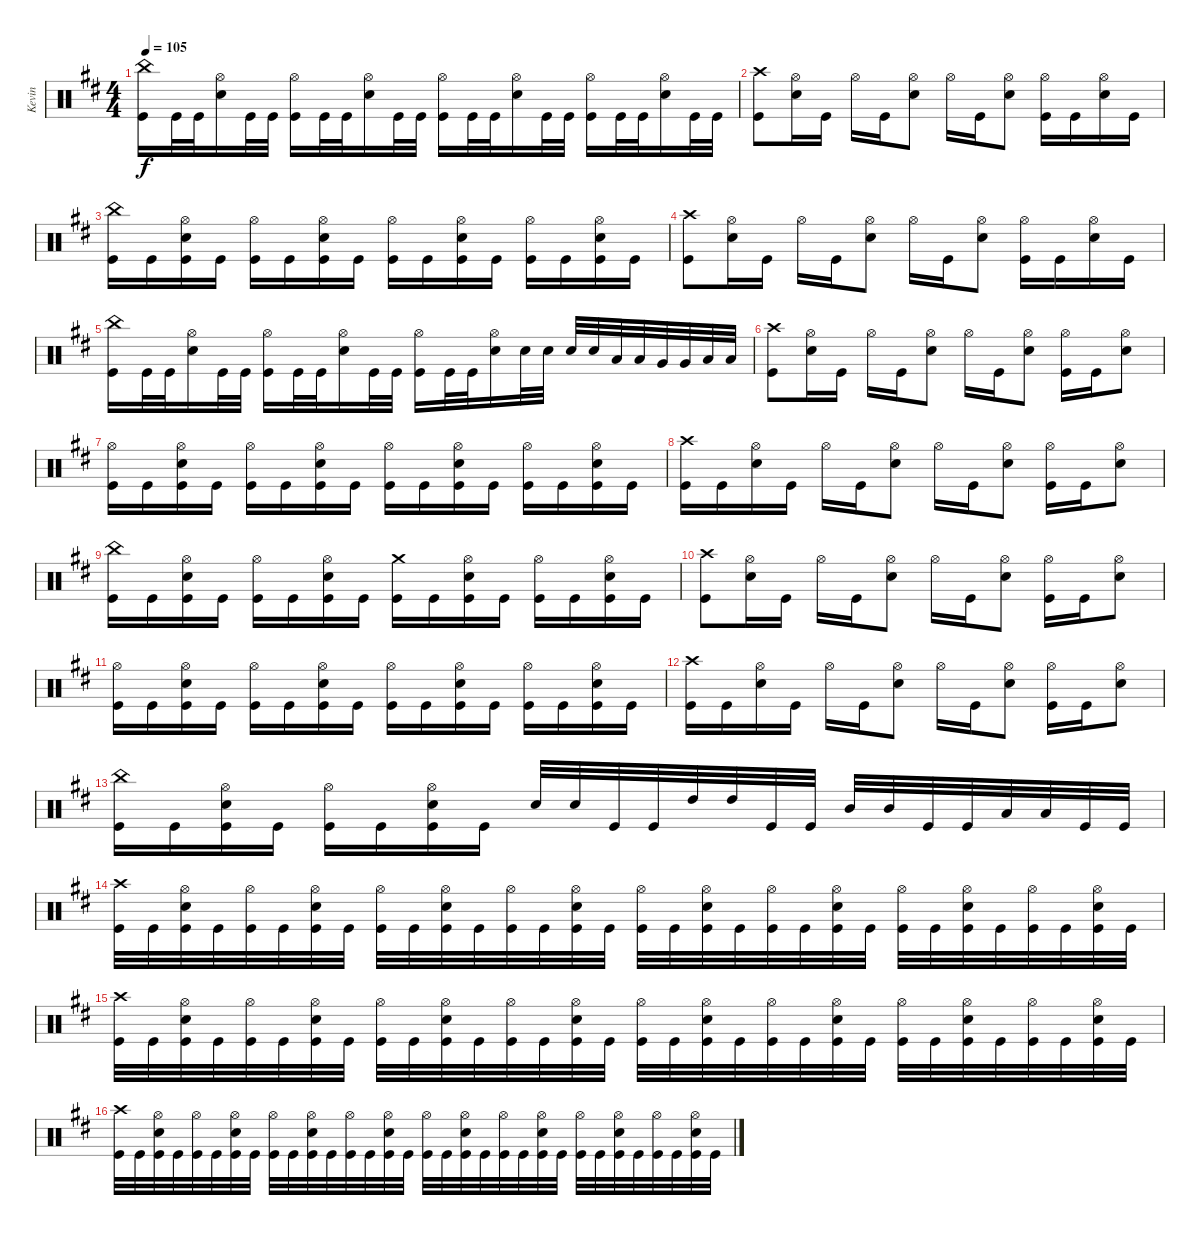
\track ("Kevin" "Kevin") {instrument percussion}
\staff {score}
\articulation defaults
\ts (4 4)
\tempo 105
\clef neutral
\ks d
("China (hit)" "Kick (hit)").16{dy f} "Kick (hit)".32 "Kick (hit)".32 ("Hi-Hat (open)" "Snare (hit) 2").16 "Kick (hit)".32 "Kick (hit)".32 ("Hi-Hat (open)" "Kick (hit)").16 "Kick (hit)".32 "Kick (hit)".32 ("Hi-Hat (open)" "Snare (hit) 2").16 "Kick (hit)".32 "Kick (hit)".32 ("Hi-Hat (open)" "Kick (hit)").16 "Kick (hit)".32 "Kick (hit)".32 ("Hi-Hat (open)" "Snare (hit) 2").16 "Kick (hit)".32 "Kick (hit)".32 ("Hi-Hat (open)" "Kick (hit)").16 "Kick (hit)".32 "Kick (hit)".32 ("Hi-Hat (open)" "Snare (hit) 2").16 "Kick (hit)".32 "Kick (hit)".32 |
("Crash high (hit)" "Kick (hit)").8 ("Hi-Hat (open)" "Snare (hit) 2").16 "Kick (hit)".16 "Hi-Hat (open)".16 "Kick (hit)".16 ("Hi-Hat (open)" "Snare (hit) 2").8 "Hi-Hat (open)".16 "Kick (hit)".16 ("Hi-Hat (open)" "Snare (hit) 2").8 ("Hi-Hat (open)" "Kick (hit)").16 "Kick (hit)".16 ("Hi-Hat (open)" "Snare (hit) 2").16 "Kick (hit)".16 |
("China (hit)" "Kick (hit)").16 "Kick (hit)".16 ("Hi-Hat (open)" "Snare (hit) 2" "Kick (hit)").16 "Kick (hit)".16 ("Hi-Hat (open)" "Kick (hit)").16 "Kick (hit)".16 ("Hi-Hat (open)" "Snare (hit) 2" "Kick (hit)").16 "Kick (hit)".16 ("Hi-Hat (open)" "Kick (hit)").16 "Kick (hit)".16 ("Hi-Hat (open)" "Snare (hit) 2" "Kick (hit)").16 "Kick (hit)".16 ("Hi-Hat (open)" "Kick (hit)").16 "Kick (hit)".16 ("Hi-Hat (open)" "Snare (hit) 2" "Kick (hit)").16 "Kick (hit)".16 |
("Crash high (hit)" "Kick (hit)").8 ("Hi-Hat (open)" "Snare (hit) 2").16 "Kick (hit)".16 "Hi-Hat (open)".16 "Kick (hit)".16 ("Hi-Hat (open)" "Snare (hit) 2").8 "Hi-Hat (open)".16 "Kick (hit)".16 ("Hi-Hat (open)" "Snare (hit) 2").8 ("Hi-Hat (open)" "Kick (hit)").16 "Kick (hit)".16 ("Hi-Hat (open)" "Snare (hit) 2").16 "Kick (hit)".16 |
("China (hit)" "Kick (hit)").16 "Kick (hit)".32 "Kick (hit)".32 ("Hi-Hat (open)" "Snare (hit) 2").16 "Kick (hit)".32 "Kick (hit)".32 ("Hi-Hat (open)" "Kick (hit)").16 "Kick (hit)".32 "Kick (hit)".32 ("Hi-Hat (open)" "Snare (hit) 2").16 "Kick (hit)".32 "Kick (hit)".32 ("Hi-Hat (open)" "Kick (hit)").16 "Kick (hit)".32 "Kick (hit)".32 ("Hi-Hat (open)" "Snare (hit) 2").16 "Snare (hit) 2".32 "Snare (hit) 2".32 "Snare (hit) 2".32 "Snare (hit) 2".32 "Low Tom (hit)".32 "Low Tom (hit)".32 "Very Low Tom (hit)".32 "Very Low Tom (hit)".32 "Low Floor Tom (hit)".32 "Low Floor Tom (hit)".32 |
("Crash high (hit)" "Kick (hit)").8 ("Hi-Hat (open)" "Snare (hit) 2").16 "Kick (hit)".16 "Hi-Hat (open)".16 "Kick (hit)".16 ("Hi-Hat (open)" "Snare (hit) 2").8 "Hi-Hat (open)".16 "Kick (hit)".16 ("Hi-Hat (open)" "Snare (hit) 2").8 ("Hi-Hat (open)" "Kick (hit)").16 "Kick (hit)".16 ("Hi-Hat (open)" "Snare (hit) 2").8 |
("Hi-Hat (open)" "Kick (hit)").16 "Kick (hit)".16 ("Hi-Hat (open)" "Snare (hit) 2" "Kick (hit)").16 "Kick (hit)".16 ("Hi-Hat (open)" "Kick (hit)").16 "Kick (hit)".16 ("Hi-Hat (open)" "Snare (hit) 2" "Kick (hit)").16 "Kick (hit)".16 ("Hi-Hat (open)" "Kick (hit)").16 "Kick (hit)".16 ("Hi-Hat (open)" "Snare (hit) 2" "Kick (hit)").16 "Kick (hit)".16 ("Hi-Hat (open)" "Kick (hit)").16 "Kick (hit)".16 ("Hi-Hat (open)" "Snare (hit) 2" "Kick (hit)").16 "Kick (hit)".16 |
("Crash high (hit)" "Kick (hit)").16 "Kick (hit)".16 ("Hi-Hat (open)" "Snare (hit) 2").16 "Kick (hit)".16 "Hi-Hat (open)".16 "Kick (hit)".16 ("Hi-Hat (open)" "Snare (hit) 2").8 "Hi-Hat (open)".16 "Kick (hit)".16 ("Hi-Hat (open)" "Snare (hit) 2").8 ("Hi-Hat (open)" "Kick (hit)").16 "Kick (hit)".16 ("Hi-Hat (open)" "Snare (hit) 2").8 |
("China (hit)" "Kick (hit)").16 "Kick (hit)".16 ("Hi-Hat (open)" "Snare (hit) 2" "Kick (hit)").16 "Kick (hit)".16 ("Hi-Hat (open)" "Kick (hit)").16 "Kick (hit)".16 ("Hi-Hat (open)" "Snare (hit) 2" "Kick (hit)").16 "Kick (hit)".16 ("Crash medium (hit)" "Kick (hit)").16 "Kick (hit)".16 ("Hi-Hat (open)" "Snare (hit) 2" "Kick (hit)").16 "Kick (hit)".16 ("Hi-Hat (open)" "Kick (hit)").16 "Kick (hit)".16 ("Hi-Hat (open)" "Snare (hit) 2" "Kick (hit)").16 "Kick (hit)".16 |
("Crash high (hit)" "Kick (hit)").8 ("Hi-Hat (open)" "Snare (hit) 2").16 "Kick (hit)".16 "Hi-Hat (open)".16 "Kick (hit)".16 ("Hi-Hat (open)" "Snare (hit) 2").8 "Hi-Hat (open)".16 "Kick (hit)".16 ("Hi-Hat (open)" "Snare (hit) 2").8 ("Hi-Hat (open)" "Kick (hit)").16 "Kick (hit)".16 ("Hi-Hat (open)" "Snare (hit) 2").8 |
("Hi-Hat (open)" "Kick (hit)").16 "Kick (hit)".16 ("Hi-Hat (open)" "Snare (hit) 2" "Kick (hit)").16 "Kick (hit)".16 ("Hi-Hat (open)" "Kick (hit)").16 "Kick (hit)".16 ("Hi-Hat (open)" "Snare (hit) 2" "Kick (hit)").16 "Kick (hit)".16 ("Hi-Hat (open)" "Kick (hit)").16 "Kick (hit)".16 ("Hi-Hat (open)" "Snare (hit) 2" "Kick (hit)").16 "Kick (hit)".16 ("Hi-Hat (open)" "Kick (hit)").16 "Kick (hit)".16 ("Hi-Hat (open)" "Snare (hit) 2" "Kick (hit)").16 "Kick (hit)".16 |
("Crash high (hit)" "Kick (hit)").16 "Kick (hit)".16 ("Hi-Hat (open)" "Snare (hit) 2").16 "Kick (hit)".16 "Hi-Hat (open)".16 "Kick (hit)".16 ("Hi-Hat (open)" "Snare (hit) 2").8 "Hi-Hat (open)".16 "Kick (hit)".16 ("Hi-Hat (open)" "Snare (hit) 2").8 ("Hi-Hat (open)" "Kick (hit)").16 "Kick (hit)".16 ("Hi-Hat (open)" "Snare (hit) 2").8 |
("China (hit)" "Kick (hit)").16 "Kick (hit)".16 ("Hi-Hat (open)" "Snare (hit) 2" "Kick (hit)").16 "Kick (hit)".16 ("Hi-Hat (open)" "Kick (hit)").16 "Kick (hit)".16 ("Hi-Hat (open)" "Snare (hit) 2" "Kick (hit)").16 "Kick (hit)".16 "Snare (hit) 2".32 "Snare (hit) 2".32 "Kick (hit)".32 "Kick (hit)".32 "High Tom (hit)".32 "High Tom (hit)".32 "Kick (hit)".32 "Kick (hit)".32 "Mid Tom (hit)".32 "Mid Tom (hit)".32 "Kick (hit)".32 "Kick (hit)".32 "Low Tom (hit)".32 "Low Tom (hit)".32 "Kick (hit)".32 "Kick (hit)".32 |
("Crash high (hit)" "Kick (hit)").32 "Kick (hit)".32 ("Hi-Hat (open)" "Snare (hit) 2" "Kick (hit)").32 "Kick (hit)".32 ("Hi-Hat (open)" "Kick (hit)").32 "Kick (hit)".32 ("Hi-Hat (open)" "Snare (hit) 2" "Kick (hit)").32 "Kick (hit)".32 ("Hi-Hat (open)" "Kick (hit)").32 "Kick (hit)".32 ("Hi-Hat (open)" "Snare (hit) 2" "Kick (hit)").32 "Kick (hit)".32 ("Hi-Hat (open)" "Kick (hit)").32 "Kick (hit)".32 ("Hi-Hat (open)" "Snare (hit) 2" "Kick (hit)").32 "Kick (hit)".32 ("Hi-Hat (open)" "Kick (hit)").32 "Kick (hit)".32 ("Hi-Hat (open)" "Snare (hit) 2" "Kick (hit)").32 "Kick (hit)".32 ("Hi-Hat (open)" "Kick (hit)").32 "Kick (hit)".32 ("Hi-Hat (open)" "Snare (hit) 2" "Kick (hit)").32 "Kick (hit)".32 ("Hi-Hat (open)" "Kick (hit)").32 "Kick (hit)".32 ("Hi-Hat (open)" "Snare (hit) 2" "Kick (hit)").32 "Kick (hit)".32 ("Hi-Hat (open)" "Kick (hit)").32 "Kick (hit)".32 ("Hi-Hat (open)" "Snare (hit) 2" "Kick (hit)").32 "Kick (hit)".32 |
("Crash high (hit)" "Kick (hit)").32 "Kick (hit)".32 ("Hi-Hat (open)" "Snare (hit) 2" "Kick (hit)").32 "Kick (hit)".32 ("Hi-Hat (open)" "Kick (hit)").32 "Kick (hit)".32 ("Hi-Hat (open)" "Snare (hit) 2" "Kick (hit)").32 "Kick (hit)".32 ("Hi-Hat (open)" "Kick (hit)").32 "Kick (hit)".32 ("Hi-Hat (open)" "Snare (hit) 2" "Kick (hit)").32 "Kick (hit)".32 ("Hi-Hat (open)" "Kick (hit)").32 "Kick (hit)".32 ("Hi-Hat (open)" "Snare (hit) 2" "Kick (hit)").32 "Kick (hit)".32 ("Hi-Hat (open)" "Kick (hit)").32 "Kick (hit)".32 ("Hi-Hat (open)" "Snare (hit) 2" "Kick (hit)").32 "Kick (hit)".32 ("Hi-Hat (open)" "Kick (hit)").32 "Kick (hit)".32 ("Hi-Hat (open)" "Snare (hit) 2" "Kick (hit)").32 "Kick (hit)".32 ("Hi-Hat (open)" "Kick (hit)").32 "Kick (hit)".32 ("Hi-Hat (open)" "Snare (hit) 2" "Kick (hit)").32 "Kick (hit)".32 ("Hi-Hat (open)" "Kick (hit)").32 "Kick (hit)".32 ("Hi-Hat (open)" "Snare (hit) 2" "Kick (hit)").32 "Kick (hit)".32 |
("Crash high (hit)" "Kick (hit)").32 "Kick (hit)".32 ("Hi-Hat (open)" "Snare (hit) 2" "Kick (hit)").32 "Kick (hit)".32 ("Hi-Hat (open)" "Kick (hit)").32 "Kick (hit)".32 ("Hi-Hat (open)" "Snare (hit) 2" "Kick (hit)").32 "Kick (hit)".32 ("Hi-Hat (open)" "Kick (hit)").32 "Kick (hit)".32 ("Hi-Hat (open)" "Snare (hit) 2" "Kick (hit)").32 "Kick (hit)".32 ("Hi-Hat (open)" "Kick (hit)").32 "Kick (hit)".32 ("Hi-Hat (open)" "Snare (hit) 2" "Kick (hit)").32 "Kick (hit)".32 ("Hi-Hat (open)" "Kick (hit)").32 "Kick (hit)".32 ("Hi-Hat (open)" "Snare (hit) 2" "Kick (hit)").32 "Kick (hit)".32 ("Hi-Hat (open)" "Kick (hit)").32 "Kick (hit)".32 ("Hi-Hat (open)" "Snare (hit) 2" "Kick (hit)").32 "Kick (hit)".32 ("Hi-Hat (open)" "Kick (hit)").32 "Kick (hit)".32 ("Hi-Hat (open)" "Snare (hit) 2" "Kick (hit)").32 "Kick (hit)".32 ("Hi-Hat (open)" "Kick (hit)").32 "Kick (hit)".32 ("Hi-Hat (open)" "Snare (hit) 2" "Kick (hit)").32 "Kick (hit)".32
